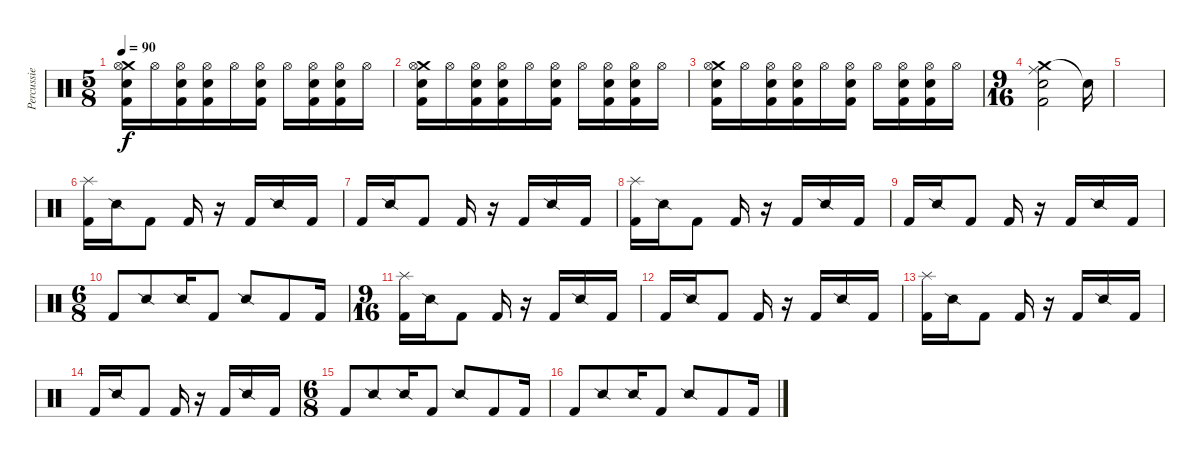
\track ("Percussie" "Percussie") {instrument percussion}
\staff {score}
\articulation defaults
\ts (5 8)
\tempo 90
\clef neutral
\ks c
("Crash medium (hit)" "Hi-Hat (open)" "Snare (hit) 2" "Kick (hit) 2").16{dy f} "Hi-Hat (open)".16 ("Hi-Hat (open)" "Snare (hit) 2" "Kick (hit) 2").16 ("Hi-Hat (open)" "Snare (hit) 2" "Kick (hit) 2").16 "Hi-Hat (open)".16 ("Hi-Hat (open)" "Snare (hit) 2" "Kick (hit) 2").16 "Hi-Hat (open)".16 ("Hi-Hat (open)" "Snare (hit) 2" "Kick (hit) 2").16 ("Hi-Hat (open)" "Snare (hit) 2" "Kick (hit) 2").16 "Hi-Hat (open)".16 |
("Crash medium (hit)" "Hi-Hat (open)" "Snare (hit) 2" "Kick (hit) 2").16 "Hi-Hat (open)".16 ("Hi-Hat (open)" "Snare (hit) 2" "Kick (hit) 2").16 ("Hi-Hat (open)" "Snare (hit) 2" "Kick (hit) 2").16 "Hi-Hat (open)".16 ("Hi-Hat (open)" "Snare (hit) 2" "Kick (hit) 2").16 "Hi-Hat (open)".16 ("Hi-Hat (open)" "Snare (hit) 2" "Kick (hit) 2").16 ("Hi-Hat (open)" "Snare (hit) 2" "Kick (hit) 2").16 "Hi-Hat (open)".16 |
("Crash medium (hit)" "Hi-Hat (open)" "Snare (hit) 2" "Kick (hit) 2").16 "Hi-Hat (open)".16 ("Hi-Hat (open)" "Snare (hit) 2" "Kick (hit) 2").16 ("Hi-Hat (open)" "Snare (hit) 2" "Kick (hit) 2").16 "Hi-Hat (open)".16 ("Hi-Hat (open)" "Snare (hit) 2" "Kick (hit) 2").16 "Hi-Hat (open)".16 ("Hi-Hat (open)" "Snare (hit) 2" "Kick (hit) 2").16 ("Hi-Hat (open)" "Snare (hit) 2" "Kick (hit) 2").16 "Hi-Hat (open)".16 |
\ts (9 16)
("Crash medium (hit)" "Ride (middle)" "Snare (hit) 2" "Kick (hit) 2").2 "Snare (hit)"{t}.16 |
|
("Splash (hit)" "Kick (hit) 2").16 "Snare (side stick) 2".16 "Kick (hit) 2".8 "Kick (hit) 2".16 r.16 "Kick (hit) 2".16 "Snare (side stick) 2".16 "Kick (hit) 2".16 |
"Kick (hit) 2".16 "Snare (side stick) 2".16 "Kick (hit) 2".8 "Kick (hit) 2".16 r.16 "Kick (hit) 2".16 "Snare (side stick) 2".16 "Kick (hit) 2".16 |
("Splash (hit)" "Kick (hit) 2").16 "Snare (side stick) 2".16 "Kick (hit) 2".8 "Kick (hit) 2".16 r.16 "Kick (hit) 2".16 "Snare (side stick) 2".16 "Kick (hit) 2".16 |
"Kick (hit) 2".16 "Snare (side stick) 2".16 "Kick (hit) 2".8 "Kick (hit) 2".16 r.16 "Kick (hit) 2".16 "Snare (side stick) 2".16 "Kick (hit) 2".16 |
\ts (6 8)
"Kick (hit) 2".8 "Snare (side stick) 2".8 "Snare (side stick) 2".16 "Kick (hit) 2".8 "Snare (side stick) 2".8 "Kick (hit) 2".8 "Kick (hit) 2".16 |
\ts (9 16)
("Splash (hit)" "Kick (hit) 2").16 "Snare (side stick) 2".16 "Kick (hit) 2".8 "Kick (hit) 2".16 r.16 "Kick (hit) 2".16 "Snare (side stick) 2".16 "Kick (hit) 2".16 |
"Kick (hit) 2".16 "Snare (side stick) 2".16 "Kick (hit) 2".8 "Kick (hit) 2".16 r.16 "Kick (hit) 2".16 "Snare (side stick) 2".16 "Kick (hit) 2".16 |
("Splash (hit)" "Kick (hit) 2").16 "Snare (side stick) 2".16 "Kick (hit) 2".8 "Kick (hit) 2".16 r.16 "Kick (hit) 2".16 "Snare (side stick) 2".16 "Kick (hit) 2".16 |
"Kick (hit) 2".16 "Snare (side stick) 2".16 "Kick (hit) 2".8 "Kick (hit) 2".16 r.16 "Kick (hit) 2".16 "Snare (side stick) 2".16 "Kick (hit) 2".16 |
\ts (6 8)
"Kick (hit) 2".8 "Snare (side stick) 2".8 "Snare (side stick) 2".16 "Kick (hit) 2".8 "Snare (side stick) 2".8 "Kick (hit) 2".8 "Kick (hit) 2".16 |
"Kick (hit) 2".8 "Snare (side stick) 2".8 "Snare (side stick) 2".16 "Kick (hit) 2".8 "Snare (side stick) 2".8 "Kick (hit) 2".8 "Kick (hit) 2".16
